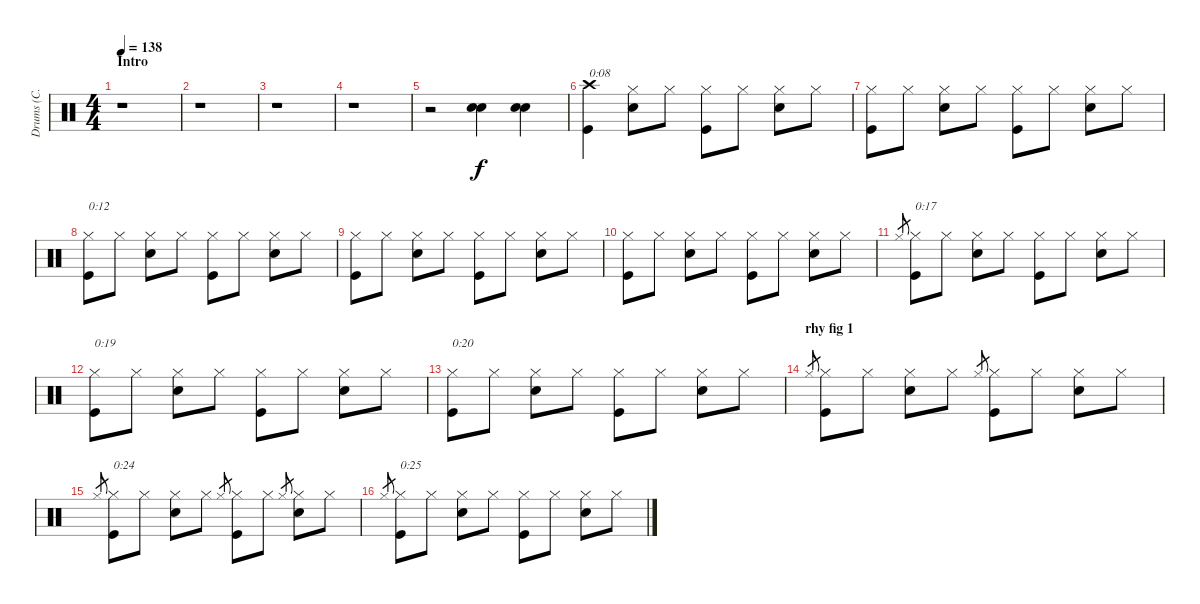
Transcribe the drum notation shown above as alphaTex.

\track ("Drums (C. Watts)" "Drums (C. ") {instrument percussion}
\staff {score}
\articulation defaults
\ts (4 4)
\section ("" "Intro")
\tempo 138
\clef neutral
\ks c
r.1{dy f} |
r.1 |
r.1 |
r.1 |
r.2 ("Snare (hit) 2" "Electric Snare (hit)").4{bd 120} ("Snare (hit) 2" "Electric Snare (hit)").4{bd 120} |
("Crash high (hit)" "Kick (hit)").4{txt "0:08"} ("Hi-Hat (closed)" "Snare (hit) 2").8 "Hi-Hat (closed)".8 ("Hi-Hat (closed)" "Kick (hit)").8 "Hi-Hat (closed)".8 ("Hi-Hat (closed)" "Snare (hit) 2").8 "Hi-Hat (closed)".8 |
("Hi-Hat (closed)" "Kick (hit)").8 "Hi-Hat (closed)".8 ("Hi-Hat (closed)" "Snare (hit) 2").8 "Hi-Hat (closed)".8 ("Hi-Hat (closed)" "Kick (hit)").8 "Hi-Hat (closed)".8 ("Hi-Hat (closed)" "Snare (hit) 2").8 "Hi-Hat (closed)".8 |
("Hi-Hat (closed)" "Kick (hit)").8{txt "0:12"} "Hi-Hat (closed)".8 ("Hi-Hat (closed)" "Snare (hit) 2").8 "Hi-Hat (closed)".8 ("Hi-Hat (closed)" "Kick (hit)").8 "Hi-Hat (closed)".8 ("Hi-Hat (closed)" "Snare (hit) 2").8 "Hi-Hat (closed)".8 |
("Hi-Hat (closed)" "Kick (hit)").8 "Hi-Hat (closed)".8 ("Hi-Hat (closed)" "Snare (hit) 2").8 "Hi-Hat (closed)".8 ("Hi-Hat (closed)" "Kick (hit)").8 "Hi-Hat (closed)".8 ("Hi-Hat (closed)" "Snare (hit) 2").8 "Hi-Hat (closed)".8 |
("Hi-Hat (closed)" "Kick (hit)").8 "Hi-Hat (closed)".8 ("Hi-Hat (closed)" "Snare (hit) 2").8 "Hi-Hat (closed)".8 ("Hi-Hat (closed)" "Kick (hit)").8 "Hi-Hat (closed)".8 ("Hi-Hat (closed)" "Snare (hit) 2").8 "Hi-Hat (closed)".8 |
"Hi-Hat (closed)".8{gr} ("Hi-Hat (closed)" "Kick (hit)").8{txt "0:17"} "Hi-Hat (closed)".8 ("Hi-Hat (closed)" "Snare (hit) 2").8 "Hi-Hat (closed)".8 ("Hi-Hat (closed)" "Kick (hit)").8 "Hi-Hat (closed)".8 ("Hi-Hat (closed)" "Snare (hit) 2").8 "Hi-Hat (closed)".8 |
("Hi-Hat (closed)" "Kick (hit)").8{txt "0:19"} "Hi-Hat (closed)".8 ("Hi-Hat (closed)" "Snare (hit) 2").8 "Hi-Hat (closed)".8 ("Hi-Hat (closed)" "Kick (hit)").8 "Hi-Hat (closed)".8 ("Hi-Hat (closed)" "Snare (hit) 2").8 "Hi-Hat (closed)".8 |
("Hi-Hat (closed)" "Kick (hit)").8{txt "0:20"} "Hi-Hat (closed)".8 ("Hi-Hat (closed)" "Snare (hit) 2").8 "Hi-Hat (closed)".8 ("Hi-Hat (closed)" "Kick (hit)").8 "Hi-Hat (closed)".8 ("Hi-Hat (closed)" "Snare (hit) 2").8 "Hi-Hat (closed)".8 |
\section ("" "rhy fig 1")
"Hi-Hat (closed)".8{gr} ("Hi-Hat (closed)" "Kick (hit)").8 "Hi-Hat (closed)".8 ("Hi-Hat (closed)" "Snare (hit) 2").8 "Hi-Hat (closed)".8 "Hi-Hat (closed)".8{gr} ("Hi-Hat (closed)" "Kick (hit)").8 "Hi-Hat (closed)".8 ("Hi-Hat (closed)" "Snare (hit) 2").8 "Hi-Hat (closed)".8 |
"Hi-Hat (closed)".8{gr} ("Hi-Hat (closed)" "Kick (hit)").8{txt "0:24"} "Hi-Hat (closed)".8 ("Hi-Hat (closed)" "Snare (hit) 2").8 "Hi-Hat (closed)".8 "Hi-Hat (closed)".8{gr} ("Hi-Hat (closed)" "Kick (hit)").8 "Hi-Hat (closed)".8 "Hi-Hat (closed)".8{gr} ("Hi-Hat (closed)" "Snare (hit) 2").8 "Hi-Hat (closed)".8 |
"Hi-Hat (closed)".8{gr} ("Hi-Hat (closed)" "Kick (hit)").8{txt "0:25"} "Hi-Hat (closed)".8 ("Hi-Hat (closed)" "Snare (hit) 2").8 "Hi-Hat (closed)".8 ("Hi-Hat (closed)" "Kick (hit)").8 "Hi-Hat (closed)".8 ("Hi-Hat (closed)" "Snare (hit) 2").8 "Hi-Hat (closed)".8
